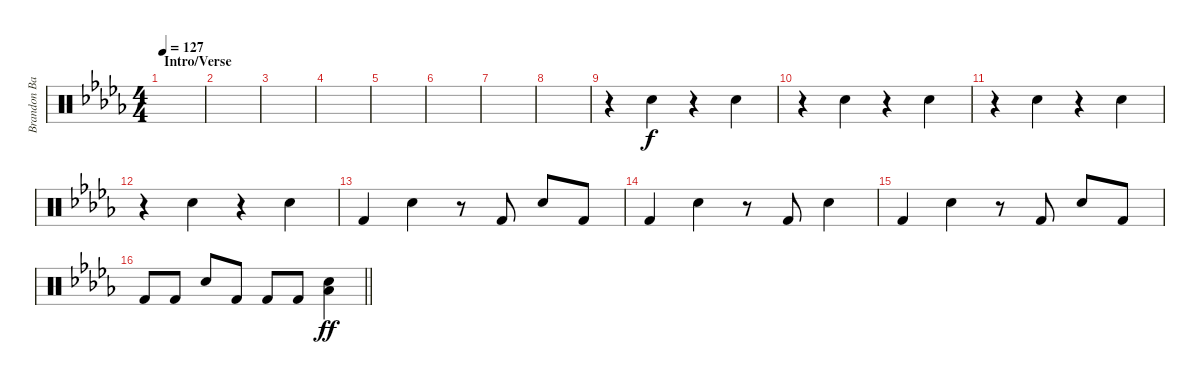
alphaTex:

\track ("Brandon Barnes - Drums" "Brandon Ba") {instrument percussion}
\staff {score}
\articulation defaults
\ts (4 4)
\section ("" "Intro/Verse")
\tempo 127
\clef neutral
\ks db
|
|
|
|
|
|
|
|
r.4 "Snare (hit) 2".4 r.4 "Snare (hit) 2".4 |
r.4 "Snare (hit) 2".4 r.4 "Snare (hit) 2".4 |
r.4 "Snare (hit) 2".4 r.4 "Snare (hit) 2".4 |
r.4 "Snare (hit) 2".4 r.4 "Snare (hit) 2".4 |
"Kick (hit) 2".4 "Snare (hit) 2".4 r.8 "Kick (hit) 2".8 "Snare (hit) 2".8 "Kick (hit) 2".8 |
"Kick (hit) 2".4 "Snare (hit) 2".4 r.8 "Kick (hit) 2".8 "Snare (hit) 2".4 |
"Kick (hit) 2".4 "Snare (hit) 2".4 r.8 "Kick (hit) 2".8 "Snare (hit) 2".8 "Kick (hit) 2".8 |
\barLineRight lightlight "Kick (hit) 2".8{volume 14} "Kick (hit) 2".8 "Snare (hit) 2".8 "Kick (hit) 2".8 "Kick (hit) 2".8 "Kick (hit) 2".8
("Snare (hit) 2" "Low Floor Tom (hit)").4{dy ff}
